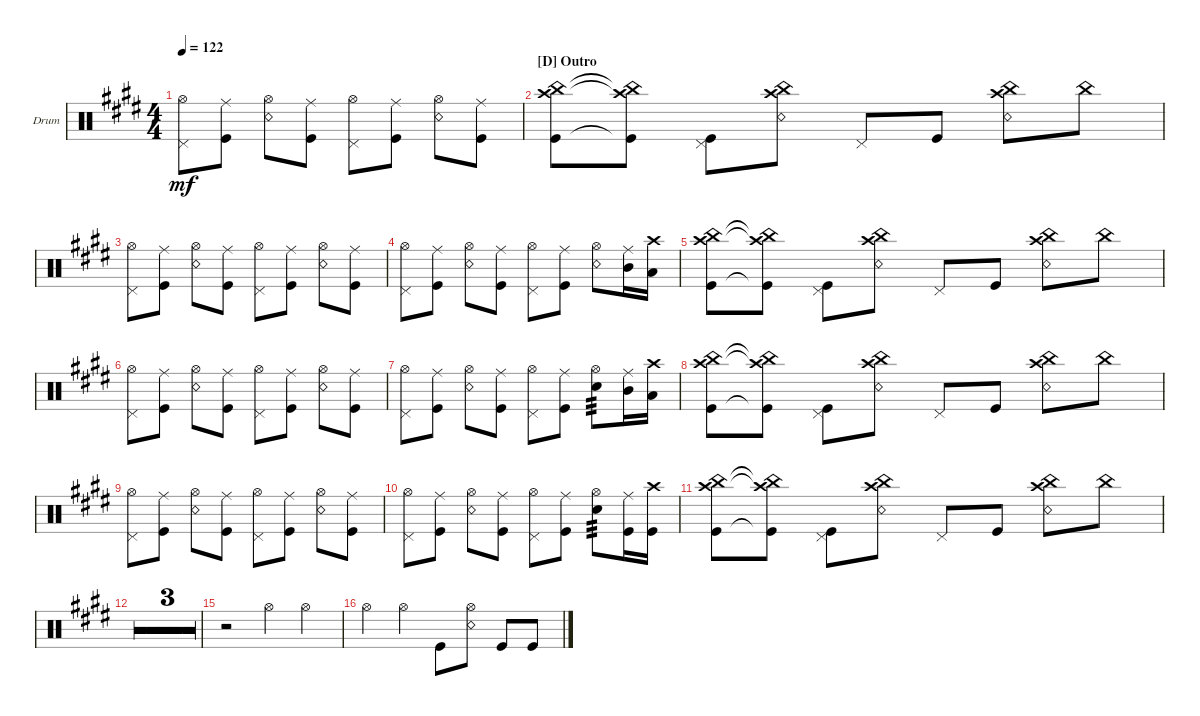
\defaultSystemsLayout 4
\bracketExtendMode groupsimilarinstruments
\firstSystemTrackNameOrientation horizontal
\otherSystemsTrackNameOrientation horizontal
\track ("Bateria" "Drum") {multiBarRest instrument percussion}
\staff {score}
\articulation defaults
\ts (4 4)
\tempo 122
\clef neutral
\ks e
("Pedal Hi-Hat (hit)" "Hi-Hat (open)").8{dy mf} ("Kick (hit)" "Ride (middle)").8 ("Snare (rim shot)" "Hi-Hat (open)").8 ("Kick (hit)" "Ride (middle)").8 ("Pedal Hi-Hat (hit)" "Hi-Hat (open)").8 ("Kick (hit)" "Ride (middle)").8 ("Snare (rim shot)" "Hi-Hat (open)").8 ("Kick (hit)" "Ride (middle)").8 |
\section ("D" "Outro")
("Kick (hit)" "Crash high (hit)" "China (hit)").8 ("Kick (hit)"{t} "Crash high (hit)"{t} "China (hit)"{t}).8 ("Kick (hit)" "Pedal Hi-Hat (hit)").8 ("Snare (rim shot)" "China (hit)" "Crash high (hit)").8 "Pedal Hi-Hat (hit)".8 "Kick (hit)".8 ("Snare (rim shot)" "Crash high (hit)" "China (hit)").8 "China (hit)".8 |
("Pedal Hi-Hat (hit)" "Hi-Hat (open)").8 ("Kick (hit)" "Ride (middle)").8 ("Snare (rim shot)" "Hi-Hat (open)").8 ("Kick (hit)" "Ride (middle)").8 ("Pedal Hi-Hat (hit)" "Hi-Hat (open)").8 ("Kick (hit)" "Ride (middle)").8 ("Snare (rim shot)" "Hi-Hat (open)").8 ("Kick (hit)" "Ride (middle)").8 |
("Pedal Hi-Hat (hit)" "Hi-Hat (open)").8 ("Kick (hit)" "Ride (middle)").8 ("Snare (rim shot)" "Hi-Hat (open)").8 ("Kick (hit)" "Ride (middle)").8 ("Pedal Hi-Hat (hit)" "Hi-Hat (open)").8 ("Kick (hit)" "Ride (middle)").8 ("Snare (rim shot)" "Hi-Hat (open)").8 ("Ride (middle)" "Mid Tom (hit)").16 ("Low Tom (hit)" "Crash high (hit)").16 |
("Kick (hit)" "Crash high (hit)" "China (hit)").8 ("Kick (hit)"{t} "Crash high (hit)"{t} "China (hit)"{t}).8 ("Kick (hit)" "Pedal Hi-Hat (hit)").8 ("Snare (rim shot)" "China (hit)" "Crash high (hit)").8 "Pedal Hi-Hat (hit)".8 "Kick (hit)".8 ("Snare (rim shot)" "Crash high (hit)" "China (hit)").8 "China (hit)".8 |
("Pedal Hi-Hat (hit)" "Hi-Hat (open)").8 ("Kick (hit)" "Ride (middle)").8 ("Snare (rim shot)" "Hi-Hat (open)").8 ("Kick (hit)" "Ride (middle)").8 ("Pedal Hi-Hat (hit)" "Hi-Hat (open)").8 ("Kick (hit)" "Ride (middle)").8 ("Snare (rim shot)" "Hi-Hat (open)").8 ("Kick (hit)" "Ride (middle)").8 |
("Pedal Hi-Hat (hit)" "Hi-Hat (open)").8 ("Kick (hit)" "Ride (middle)").8 ("Snare (rim shot)" "Hi-Hat (open)").8 ("Kick (hit)" "Ride (middle)").8 ("Pedal Hi-Hat (hit)" "Hi-Hat (open)").8 ("Kick (hit)" "Ride (middle)").8 ("Snare (hit) 2" "Hi-Hat (open)").8{tp 3} ("Ride (middle)" "Mid Tom (hit)").16 ("Low Tom (hit)" "Crash high (hit)").16 |
("Kick (hit)" "Crash high (hit)" "China (hit)").8 ("Kick (hit)"{t} "Crash high (hit)"{t} "China (hit)"{t}).8 ("Kick (hit)" "Pedal Hi-Hat (hit)").8 ("Snare (rim shot)" "China (hit)" "Crash high (hit)").8 "Pedal Hi-Hat (hit)".8 "Kick (hit)".8 ("Snare (rim shot)" "Crash high (hit)" "China (hit)").8 "China (hit)".8 |
("Pedal Hi-Hat (hit)" "Hi-Hat (open)").8 ("Kick (hit)" "Ride (middle)").8 ("Snare (rim shot)" "Hi-Hat (open)").8 ("Kick (hit)" "Ride (middle)").8 ("Pedal Hi-Hat (hit)" "Hi-Hat (open)").8 ("Kick (hit)" "Ride (middle)").8 ("Snare (rim shot)" "Hi-Hat (open)").8 ("Kick (hit)" "Ride (middle)").8 |
("Pedal Hi-Hat (hit)" "Hi-Hat (open)").8 ("Kick (hit)" "Ride (middle)").8 ("Snare (rim shot)" "Hi-Hat (open)").8 ("Kick (hit)" "Ride (middle)").8 ("Pedal Hi-Hat (hit)" "Hi-Hat (open)").8 ("Kick (hit)" "Ride (middle)").8 ("Snare (hit) 2" "Hi-Hat (open)").8{tp 3} ("Ride (middle)" "Kick (hit)").16 ("Crash high (hit)" "Kick (hit)").16 |
("Kick (hit)" "Crash high (hit)" "China (hit)").8 ("Kick (hit)"{t} "Crash high (hit)"{t} "China (hit)"{t}).8 ("Kick (hit)" "Pedal Hi-Hat (hit)").8 ("Snare (rim shot)" "China (hit)" "Crash high (hit)").8 "Pedal Hi-Hat (hit)".8 "Kick (hit)".8 ("Snare (rim shot)" "Crash high (hit)" "China (hit)").8 "China (hit)".8 |
|
|
|
r.2 "Hi-Hat (open)".4 "Hi-Hat (open)".4 |
"Hi-Hat (open)".4 "Hi-Hat (open)".4 "Kick (hit)".8 ("Snare (rim shot)" "Hi-Hat (open)").8 "Kick (hit)".8 "Kick (hit)".8
